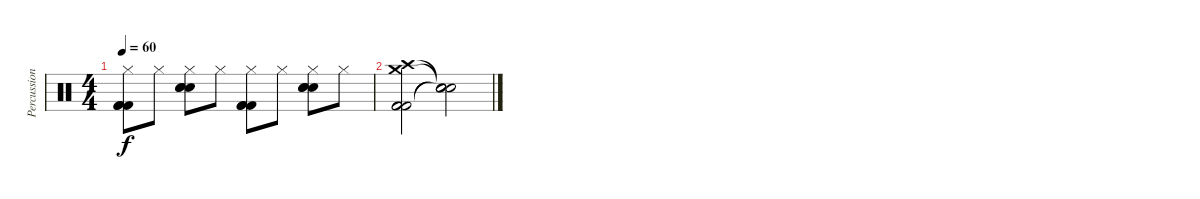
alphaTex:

\track ("Percussion (Nigel Olsson)" "Percussion") {instrument percussion}
\staff {score}
\articulation defaults
\ts (4 4)
\tempo 60
\clef neutral
\ks c
("Hi-Hat (closed)" "Kick (hit) 2" "Kick (hit) 2" "Kick (hit) 2").8{dy f} "Hi-Hat (closed)".8 ("Hi-Hat (closed)" "Electric Snare (hit)" "Electric Snare (hit)" "Electric Snare (hit)").8 "Hi-Hat (closed)".8 ("Hi-Hat (closed)" "Kick (hit) 2" "Kick (hit) 2" "Kick (hit) 2").8 "Hi-Hat (closed)".8 ("Hi-Hat (closed)" "Electric Snare (hit)" "Electric Snare (hit)" "Electric Snare (hit)").8 "Hi-Hat (closed)".8 |
("Crash high (hit)" "Crash medium (hit)" "Kick (hit) 2" "Kick (hit) 2" "Kick (hit) 2").2 ("Snare (hit)"{t} "Snare (hit)"{t} "Snare (hit)"{t} "Snare (hit)"{t}).2
